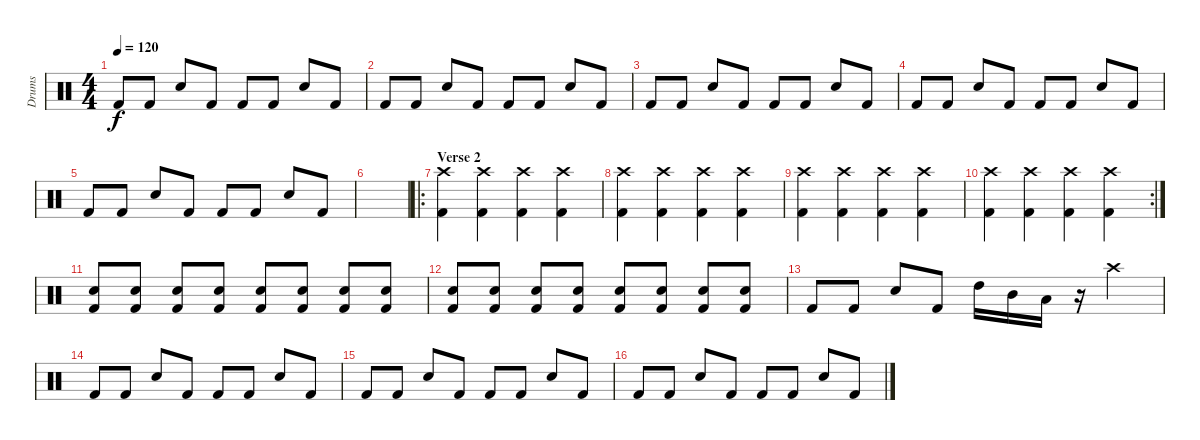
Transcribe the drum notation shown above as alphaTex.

\track ("Drums" "Drums") {instrument percussion}
\staff {score}
\articulation defaults
\ts (4 4)
\tempo 120
\clef neutral
\ks c "Kick (hit) 2".8{dy f} "Kick (hit) 2".8 "Snare (hit) 2".8 "Kick (hit) 2".8 "Kick (hit) 2".8 "Kick (hit) 2".8 "Snare (hit) 2".8 "Kick (hit) 2".8
|
"Kick (hit) 2".8 "Kick (hit) 2".8 "Snare (hit) 2".8 "Kick (hit) 2".8 "Kick (hit) 2".8 "Kick (hit) 2".8 "Snare (hit) 2".8 "Kick (hit) 2".8 |
"Kick (hit) 2".8 "Kick (hit) 2".8 "Snare (hit) 2".8 "Kick (hit) 2".8 "Kick (hit) 2".8 "Kick (hit) 2".8 "Snare (hit) 2".8 "Kick (hit) 2".8 |
"Kick (hit) 2".8 "Kick (hit) 2".8 "Snare (hit) 2".8 "Kick (hit) 2".8 "Kick (hit) 2".8 "Kick (hit) 2".8 "Snare (hit) 2".8 "Kick (hit) 2".8 |
"Kick (hit) 2".8 "Kick (hit) 2".8 "Snare (hit) 2".8 "Kick (hit) 2".8 "Kick (hit) 2".8 "Kick (hit) 2".8 "Snare (hit) 2".8 "Kick (hit) 2".8 |
|
\ro
\section ("" "Verse 2")
("Kick (hit) 2" "Crash high (hit)").4 ("Kick (hit) 2" "Crash high (hit)").4 ("Kick (hit) 2" "Crash high (hit)").4 ("Kick (hit) 2" "Crash high (hit)").4 |
("Kick (hit) 2" "Crash high (hit)").4 ("Kick (hit) 2" "Crash high (hit)").4 ("Kick (hit) 2" "Crash high (hit)").4 ("Kick (hit) 2" "Crash high (hit)").4 |
("Kick (hit) 2" "Crash high (hit)").4 ("Kick (hit) 2" "Crash high (hit)").4 ("Kick (hit) 2" "Crash high (hit)").4 ("Kick (hit) 2" "Crash high (hit)").4 |
\rc 2
("Kick (hit) 2" "Crash high (hit)").4 ("Kick (hit) 2" "Crash high (hit)").4 ("Kick (hit) 2" "Crash high (hit)").4 ("Kick (hit) 2" "Crash high (hit)").4 |
("Kick (hit) 2" "Snare (hit) 2").8 ("Kick (hit) 2" "Snare (hit) 2").8 ("Kick (hit) 2" "Snare (hit) 2").8 ("Kick (hit) 2" "Snare (hit) 2").8 ("Kick (hit) 2" "Snare (hit) 2").8 ("Kick (hit) 2" "Snare (hit) 2").8 ("Kick (hit) 2" "Snare (hit) 2").8 ("Kick (hit) 2" "Snare (hit) 2").8 |
("Kick (hit) 2" "Snare (hit) 2").8 ("Kick (hit) 2" "Snare (hit) 2").8 ("Kick (hit) 2" "Snare (hit) 2").8 ("Kick (hit) 2" "Snare (hit) 2").8 ("Kick (hit) 2" "Snare (hit) 2").8 ("Kick (hit) 2" "Snare (hit) 2").8 ("Kick (hit) 2" "Snare (hit) 2").8 ("Kick (hit) 2" "Snare (hit) 2").8 |
"Kick (hit) 2".8 "Kick (hit) 2".8 "Snare (hit) 2".8 "Kick (hit) 2".8 "High Tom (hit)".16 "Mid Tom (hit)".16 "Low Tom (hit)".16 r.16 "Crash high (hit)".4 |
"Kick (hit) 2".8 "Kick (hit) 2".8 "Snare (hit) 2".8 "Kick (hit) 2".8 "Kick (hit) 2".8 "Kick (hit) 2".8 "Snare (hit) 2".8 "Kick (hit) 2".8 |
"Kick (hit) 2".8 "Kick (hit) 2".8 "Snare (hit) 2".8 "Kick (hit) 2".8 "Kick (hit) 2".8 "Kick (hit) 2".8 "Snare (hit) 2".8 "Kick (hit) 2".8 |
"Kick (hit) 2".8 "Kick (hit) 2".8 "Snare (hit) 2".8 "Kick (hit) 2".8 "Kick (hit) 2".8 "Kick (hit) 2".8 "Snare (hit) 2".8 "Kick (hit) 2".8
